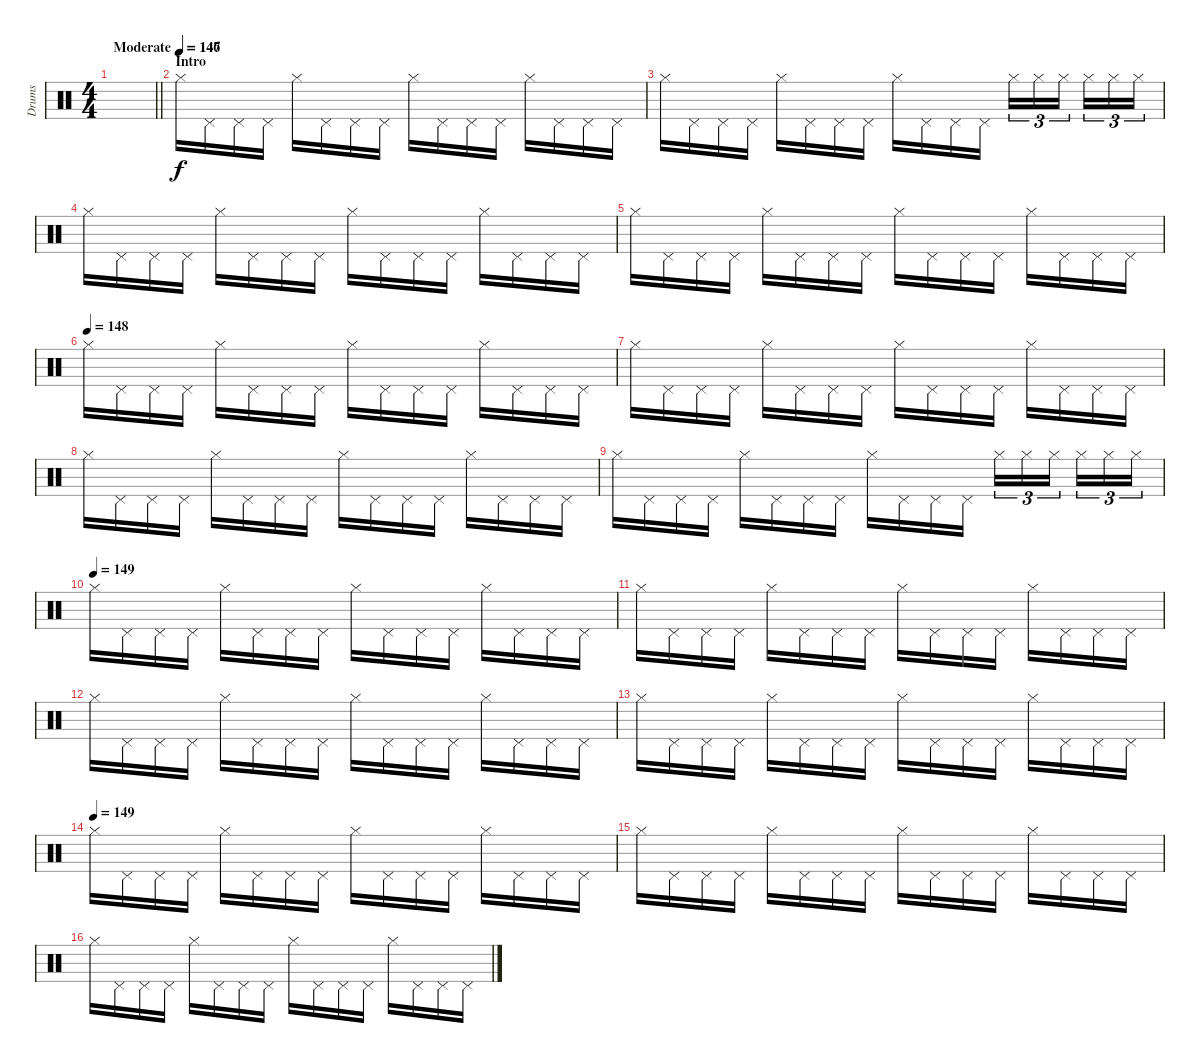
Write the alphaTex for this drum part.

\track ("Drums" "Drums") {instrument percussion}
\staff {score}
\articulation defaults
\ts (4 4)
\tempo (146 "Moderate")
\clef neutral
\barLineRight lightlight
\ks c
|
\section ("" "Intro")
\tempo (147)
"Hi-Hat (closed)".16 "Pedal Hi-Hat (hit)".16 "Pedal Hi-Hat (hit)".16 "Pedal Hi-Hat (hit)".16 "Hi-Hat (closed)".16 "Pedal Hi-Hat (hit)".16 "Pedal Hi-Hat (hit)".16 "Pedal Hi-Hat (hit)".16 "Hi-Hat (closed)".16 "Pedal Hi-Hat (hit)".16 "Pedal Hi-Hat (hit)".16 "Pedal Hi-Hat (hit)".16 "Hi-Hat (closed)".16 "Pedal Hi-Hat (hit)".16 "Pedal Hi-Hat (hit)".16 "Pedal Hi-Hat (hit)".16 |
"Hi-Hat (closed)".16 "Pedal Hi-Hat (hit)".16 "Pedal Hi-Hat (hit)".16 "Pedal Hi-Hat (hit)".16 "Hi-Hat (closed)".16 "Pedal Hi-Hat (hit)".16 "Pedal Hi-Hat (hit)".16 "Pedal Hi-Hat (hit)".16 "Hi-Hat (closed)".16 "Pedal Hi-Hat (hit)".16 "Pedal Hi-Hat (hit)".16 "Pedal Hi-Hat (hit)".16 "Hi-Hat (closed)".16{tu (3 2)} "Hi-Hat (closed)".16{tu (3 2)} "Hi-Hat (closed)".16{tu (3 2) beam splitsecondary} "Hi-Hat (closed)".16{tu (3 2)} "Hi-Hat (closed)".16{tu (3 2)} "Hi-Hat (closed)".16{tu (3 2)} |
"Hi-Hat (closed)".16 "Pedal Hi-Hat (hit)".16 "Pedal Hi-Hat (hit)".16 "Pedal Hi-Hat (hit)".16 "Hi-Hat (closed)".16 "Pedal Hi-Hat (hit)".16 "Pedal Hi-Hat (hit)".16 "Pedal Hi-Hat (hit)".16 "Hi-Hat (closed)".16 "Pedal Hi-Hat (hit)".16 "Pedal Hi-Hat (hit)".16 "Pedal Hi-Hat (hit)".16 "Hi-Hat (closed)".16 "Pedal Hi-Hat (hit)".16 "Pedal Hi-Hat (hit)".16 "Pedal Hi-Hat (hit)".16 |
"Hi-Hat (closed)".16 "Pedal Hi-Hat (hit)".16 "Pedal Hi-Hat (hit)".16 "Pedal Hi-Hat (hit)".16 "Hi-Hat (closed)".16 "Pedal Hi-Hat (hit)".16 "Pedal Hi-Hat (hit)".16 "Pedal Hi-Hat (hit)".16 "Hi-Hat (closed)".16 "Pedal Hi-Hat (hit)".16 "Pedal Hi-Hat (hit)".16 "Pedal Hi-Hat (hit)".16 "Hi-Hat (closed)".16 "Pedal Hi-Hat (hit)".16 "Pedal Hi-Hat (hit)".16 "Pedal Hi-Hat (hit)".16 |
\tempo (148)
"Hi-Hat (closed)".16 "Pedal Hi-Hat (hit)".16 "Pedal Hi-Hat (hit)".16 "Pedal Hi-Hat (hit)".16 "Hi-Hat (closed)".16 "Pedal Hi-Hat (hit)".16 "Pedal Hi-Hat (hit)".16 "Pedal Hi-Hat (hit)".16 "Hi-Hat (closed)".16 "Pedal Hi-Hat (hit)".16 "Pedal Hi-Hat (hit)".16 "Pedal Hi-Hat (hit)".16 "Hi-Hat (closed)".16 "Pedal Hi-Hat (hit)".16 "Pedal Hi-Hat (hit)".16 "Pedal Hi-Hat (hit)".16 |
"Hi-Hat (closed)".16 "Pedal Hi-Hat (hit)".16 "Pedal Hi-Hat (hit)".16 "Pedal Hi-Hat (hit)".16 "Hi-Hat (closed)".16 "Pedal Hi-Hat (hit)".16 "Pedal Hi-Hat (hit)".16 "Pedal Hi-Hat (hit)".16 "Hi-Hat (closed)".16 "Pedal Hi-Hat (hit)".16 "Pedal Hi-Hat (hit)".16 "Pedal Hi-Hat (hit)".16 "Hi-Hat (closed)".16 "Pedal Hi-Hat (hit)".16 "Pedal Hi-Hat (hit)".16 "Pedal Hi-Hat (hit)".16 |
"Hi-Hat (closed)".16 "Pedal Hi-Hat (hit)".16 "Pedal Hi-Hat (hit)".16 "Pedal Hi-Hat (hit)".16 "Hi-Hat (closed)".16 "Pedal Hi-Hat (hit)".16 "Pedal Hi-Hat (hit)".16 "Pedal Hi-Hat (hit)".16 "Hi-Hat (closed)".16 "Pedal Hi-Hat (hit)".16 "Pedal Hi-Hat (hit)".16 "Pedal Hi-Hat (hit)".16 "Hi-Hat (closed)".16 "Pedal Hi-Hat (hit)".16 "Pedal Hi-Hat (hit)".16 "Pedal Hi-Hat (hit)".16 |
"Hi-Hat (closed)".16 "Pedal Hi-Hat (hit)".16 "Pedal Hi-Hat (hit)".16 "Pedal Hi-Hat (hit)".16 "Hi-Hat (closed)".16 "Pedal Hi-Hat (hit)".16 "Pedal Hi-Hat (hit)".16 "Pedal Hi-Hat (hit)".16 "Hi-Hat (closed)".16 "Pedal Hi-Hat (hit)".16 "Pedal Hi-Hat (hit)".16 "Pedal Hi-Hat (hit)".16 "Hi-Hat (closed)".16{tu (3 2)} "Hi-Hat (closed)".16{tu (3 2)} "Hi-Hat (closed)".16{tu (3 2) beam splitsecondary} "Hi-Hat (closed)".16{tu (3 2)} "Hi-Hat (closed)".16{tu (3 2)} "Hi-Hat (closed)".16{tu (3 2)} |
\tempo (149)
"Hi-Hat (closed)".16 "Pedal Hi-Hat (hit)".16 "Pedal Hi-Hat (hit)".16 "Pedal Hi-Hat (hit)".16 "Hi-Hat (closed)".16 "Pedal Hi-Hat (hit)".16 "Pedal Hi-Hat (hit)".16 "Pedal Hi-Hat (hit)".16 "Hi-Hat (closed)".16 "Pedal Hi-Hat (hit)".16 "Pedal Hi-Hat (hit)".16 "Pedal Hi-Hat (hit)".16 "Hi-Hat (closed)".16 "Pedal Hi-Hat (hit)".16 "Pedal Hi-Hat (hit)".16 "Pedal Hi-Hat (hit)".16 |
"Hi-Hat (closed)".16 "Pedal Hi-Hat (hit)".16 "Pedal Hi-Hat (hit)".16 "Pedal Hi-Hat (hit)".16 "Hi-Hat (closed)".16 "Pedal Hi-Hat (hit)".16 "Pedal Hi-Hat (hit)".16 "Pedal Hi-Hat (hit)".16 "Hi-Hat (closed)".16 "Pedal Hi-Hat (hit)".16 "Pedal Hi-Hat (hit)".16 "Pedal Hi-Hat (hit)".16 "Hi-Hat (closed)".16 "Pedal Hi-Hat (hit)".16 "Pedal Hi-Hat (hit)".16 "Pedal Hi-Hat (hit)".16 |
"Hi-Hat (closed)".16 "Pedal Hi-Hat (hit)".16 "Pedal Hi-Hat (hit)".16 "Pedal Hi-Hat (hit)".16 "Hi-Hat (closed)".16 "Pedal Hi-Hat (hit)".16 "Pedal Hi-Hat (hit)".16 "Pedal Hi-Hat (hit)".16 "Hi-Hat (closed)".16 "Pedal Hi-Hat (hit)".16 "Pedal Hi-Hat (hit)".16 "Pedal Hi-Hat (hit)".16 "Hi-Hat (closed)".16 "Pedal Hi-Hat (hit)".16 "Pedal Hi-Hat (hit)".16 "Pedal Hi-Hat (hit)".16 |
"Hi-Hat (closed)".16 "Pedal Hi-Hat (hit)".16 "Pedal Hi-Hat (hit)".16 "Pedal Hi-Hat (hit)".16 "Hi-Hat (closed)".16 "Pedal Hi-Hat (hit)".16 "Pedal Hi-Hat (hit)".16 "Pedal Hi-Hat (hit)".16 "Hi-Hat (closed)".16 "Pedal Hi-Hat (hit)".16 "Pedal Hi-Hat (hit)".16 "Pedal Hi-Hat (hit)".16 "Hi-Hat (closed)".16 "Pedal Hi-Hat (hit)".16 "Pedal Hi-Hat (hit)".16 "Pedal Hi-Hat (hit)".16 |
\tempo (149)
"Hi-Hat (closed)".16 "Pedal Hi-Hat (hit)".16 "Pedal Hi-Hat (hit)".16 "Pedal Hi-Hat (hit)".16 "Hi-Hat (closed)".16 "Pedal Hi-Hat (hit)".16 "Pedal Hi-Hat (hit)".16 "Pedal Hi-Hat (hit)".16 "Hi-Hat (closed)".16 "Pedal Hi-Hat (hit)".16 "Pedal Hi-Hat (hit)".16 "Pedal Hi-Hat (hit)".16 "Hi-Hat (closed)".16 "Pedal Hi-Hat (hit)".16 "Pedal Hi-Hat (hit)".16 "Pedal Hi-Hat (hit)".16 |
"Hi-Hat (closed)".16 "Pedal Hi-Hat (hit)".16 "Pedal Hi-Hat (hit)".16 "Pedal Hi-Hat (hit)".16 "Hi-Hat (closed)".16 "Pedal Hi-Hat (hit)".16 "Pedal Hi-Hat (hit)".16 "Pedal Hi-Hat (hit)".16 "Hi-Hat (closed)".16 "Pedal Hi-Hat (hit)".16 "Pedal Hi-Hat (hit)".16 "Pedal Hi-Hat (hit)".16 "Hi-Hat (closed)".16 "Pedal Hi-Hat (hit)".16 "Pedal Hi-Hat (hit)".16 "Pedal Hi-Hat (hit)".16 |
"Hi-Hat (closed)".16 "Pedal Hi-Hat (hit)".16 "Pedal Hi-Hat (hit)".16 "Pedal Hi-Hat (hit)".16 "Hi-Hat (closed)".16 "Pedal Hi-Hat (hit)".16 "Pedal Hi-Hat (hit)".16 "Pedal Hi-Hat (hit)".16 "Hi-Hat (closed)".16 "Pedal Hi-Hat (hit)".16 "Pedal Hi-Hat (hit)".16 "Pedal Hi-Hat (hit)".16 "Hi-Hat (closed)".16 "Pedal Hi-Hat (hit)".16 "Pedal Hi-Hat (hit)".16 "Pedal Hi-Hat (hit)".16
